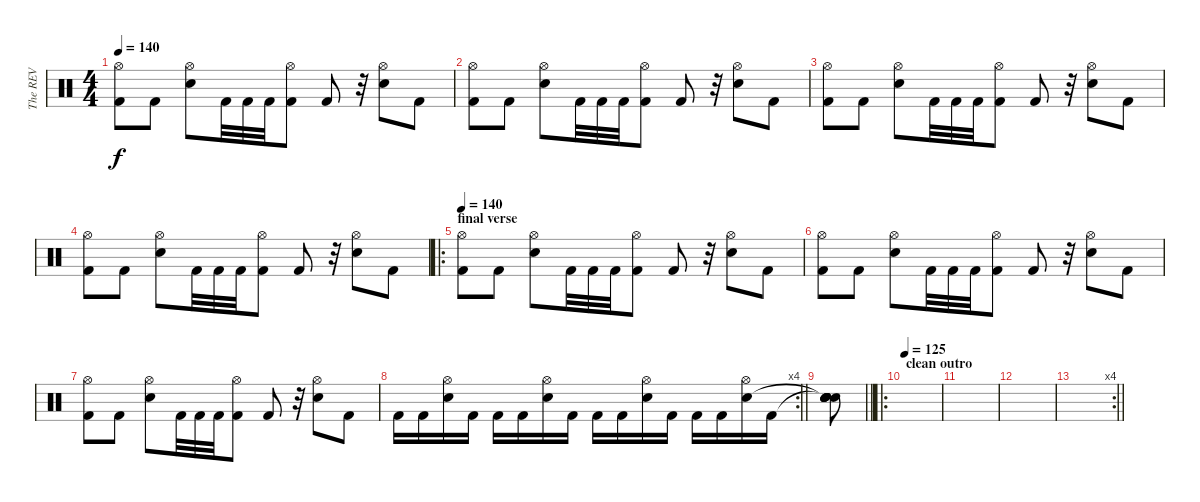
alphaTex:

\track ("The REV" "The REV") {instrument percussion}
\staff {score}
\articulation defaults
\ts (4 4)
\tempo 140
\clef neutral
\ks c
("Hi-Hat (open)" "Kick (hit) 2").8{dy f} "Kick (hit) 2".8 ("Hi-Hat (open)" "Electric Snare (hit)").8 "Kick (hit) 2".32 "Kick (hit) 2".32 "Kick (hit) 2".32 ("Hi-Hat (open)" "Kick (hit) 2").8 "Kick (hit) 2".8 r.32 ("Hi-Hat (open)" "Electric Snare (hit)").8 "Kick (hit) 2".8 |
("Hi-Hat (open)" "Kick (hit) 2").8 "Kick (hit) 2".8 ("Hi-Hat (open)" "Electric Snare (hit)").8 "Kick (hit) 2".32 "Kick (hit) 2".32 "Kick (hit) 2".32 ("Hi-Hat (open)" "Kick (hit) 2").8 "Kick (hit) 2".8 r.32 ("Hi-Hat (open)" "Electric Snare (hit)").8 "Kick (hit) 2".8 |
("Hi-Hat (open)" "Kick (hit) 2").8 "Kick (hit) 2".8 ("Hi-Hat (open)" "Electric Snare (hit)").8 "Kick (hit) 2".32 "Kick (hit) 2".32 "Kick (hit) 2".32 ("Hi-Hat (open)" "Kick (hit) 2").8 "Kick (hit) 2".8 r.32 ("Hi-Hat (open)" "Electric Snare (hit)").8 "Kick (hit) 2".8 |
("Hi-Hat (open)" "Kick (hit) 2").8 "Kick (hit) 2".8 ("Hi-Hat (open)" "Electric Snare (hit)").8 "Kick (hit) 2".32 "Kick (hit) 2".32 "Kick (hit) 2".32 ("Hi-Hat (open)" "Kick (hit) 2").8 "Kick (hit) 2".8 r.32 ("Hi-Hat (open)" "Electric Snare (hit)").8 "Kick (hit) 2".8 |
\ro
\section ("" "final verse ")
\tempo 140
("Hi-Hat (open)" "Kick (hit) 2").8 "Kick (hit) 2".8 ("Hi-Hat (open)" "Electric Snare (hit)").8 "Kick (hit) 2".32 "Kick (hit) 2".32 "Kick (hit) 2".32 ("Hi-Hat (open)" "Kick (hit) 2").8 "Kick (hit) 2".8 r.32 ("Hi-Hat (open)" "Electric Snare (hit)").8 "Kick (hit) 2".8 |
("Hi-Hat (open)" "Kick (hit) 2").8 "Kick (hit) 2".8 ("Hi-Hat (open)" "Electric Snare (hit)").8 "Kick (hit) 2".32 "Kick (hit) 2".32 "Kick (hit) 2".32 ("Hi-Hat (open)" "Kick (hit) 2").8 "Kick (hit) 2".8 r.32 ("Hi-Hat (open)" "Electric Snare (hit)").8 "Kick (hit) 2".8 |
("Hi-Hat (open)" "Kick (hit) 2").8 "Kick (hit) 2".8 ("Hi-Hat (open)" "Electric Snare (hit)").8 "Kick (hit) 2".32 "Kick (hit) 2".32 "Kick (hit) 2".32 ("Hi-Hat (open)" "Kick (hit) 2").8 "Kick (hit) 2".8 r.32 ("Hi-Hat (open)" "Electric Snare (hit)").8 "Kick (hit) 2".8 |
\rc 4
\barLineRight lightlight "Kick (hit) 2".16 "Kick (hit) 2".16
("Hi-Hat (open)" "Electric Snare (hit)").16 "Kick (hit) 2".16 "Kick (hit) 2".16 "Kick (hit) 2".16 ("Hi-Hat (open)" "Electric Snare (hit)").16 "Kick (hit) 2".16 "Kick (hit) 2".16 "Kick (hit) 2".16 ("Hi-Hat (open)" "Electric Snare (hit)").16 "Kick (hit) 2".16 "Kick (hit) 2".16 "Kick (hit) 2".16 ("Hi-Hat (open)" "Electric Snare (hit)").16 "Kick (hit) 2".16 |
\barLineRight lightlight
("Snare (hit)"{t} "Snare (hit)"{t} "Snare (hit)" "Snare (hit)" "Snare (hit)" "Snare (hit)").8 |
\ro
\section ("" "clean outro")
\tempo 125
|
|
|
\rc 4
\barLineRight lightlight
